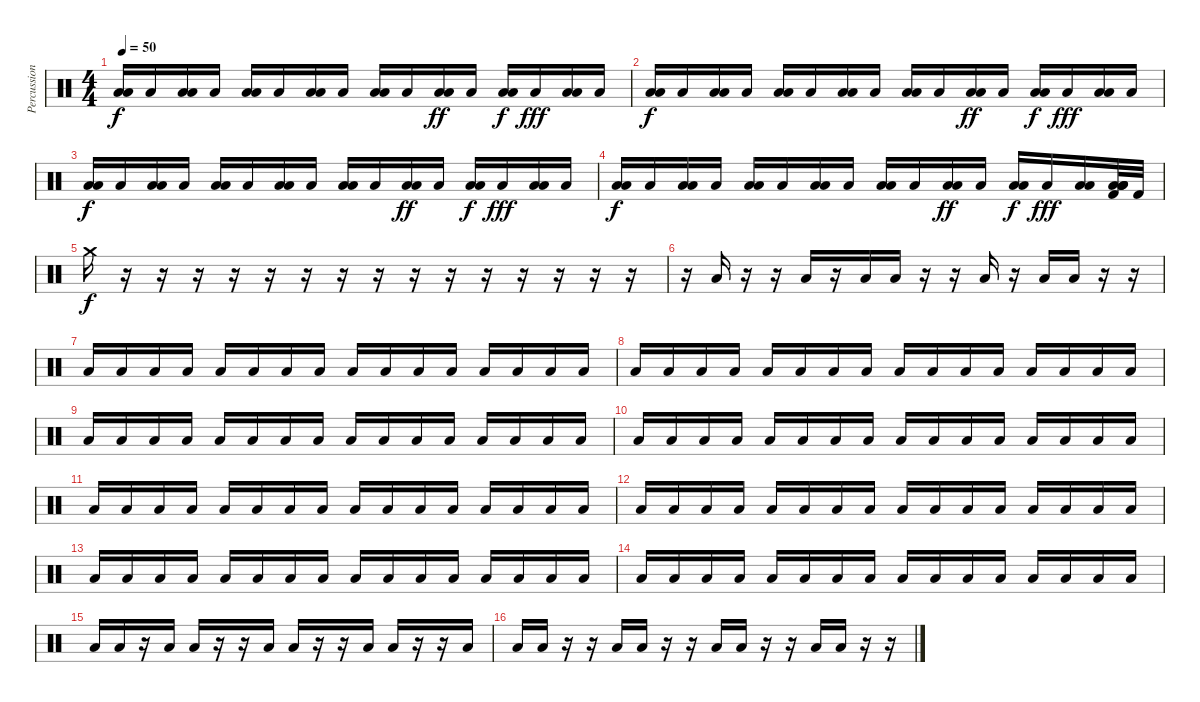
\track ("Percussion" "Percussion") {instrument percussion}
\staff {score}
\articulation defaults
\ts (4 4)
\tempo 50
\clef neutral
\ks c
("Low Floor Tom (hit)" "Low Tom (hit)").16{dy f} "Low Floor Tom (hit)".16 ("Low Floor Tom (hit)" "Low Tom (hit)").16 "Low Floor Tom (hit)".16 ("Low Floor Tom (hit)" "Low Tom (hit)").16 "Low Floor Tom (hit)".16 ("Low Floor Tom (hit)" "Low Tom (hit)").16 "Low Floor Tom (hit)".16 ("Low Floor Tom (hit)" "Low Tom (hit)").16 "Low Floor Tom (hit)".16 ("Low Floor Tom (hit)" "Low Tom (hit)").16{dy ff} "Low Floor Tom (hit)".16 ("Low Floor Tom (hit)" "Low Tom (hit)").16{dy f} "Low Floor Tom (hit)".16{dy fff} ("Low Floor Tom (hit)" "Low Tom (hit)").16 "Low Floor Tom (hit)".16 |
("Low Floor Tom (hit)" "Low Tom (hit)").16{dy f} "Low Floor Tom (hit)".16 ("Low Floor Tom (hit)" "Low Tom (hit)").16 "Low Floor Tom (hit)".16 ("Low Floor Tom (hit)" "Low Tom (hit)").16 "Low Floor Tom (hit)".16 ("Low Floor Tom (hit)" "Low Tom (hit)").16 "Low Floor Tom (hit)".16 ("Low Floor Tom (hit)" "Low Tom (hit)").16 "Low Floor Tom (hit)".16 ("Low Floor Tom (hit)" "Low Tom (hit)").16{dy ff} "Low Floor Tom (hit)".16 ("Low Floor Tom (hit)" "Low Tom (hit)").16{dy f} "Low Floor Tom (hit)".16{dy fff} ("Low Floor Tom (hit)" "Low Tom (hit)").16 "Low Floor Tom (hit)".16 |
("Low Floor Tom (hit)" "Low Tom (hit)").16{dy f} "Low Floor Tom (hit)".16 ("Low Floor Tom (hit)" "Low Tom (hit)").16 "Low Floor Tom (hit)".16 ("Low Floor Tom (hit)" "Low Tom (hit)").16 "Low Floor Tom (hit)".16 ("Low Floor Tom (hit)" "Low Tom (hit)").16 "Low Floor Tom (hit)".16 ("Low Floor Tom (hit)" "Low Tom (hit)").16 "Low Floor Tom (hit)".16 ("Low Floor Tom (hit)" "Low Tom (hit)").16{dy ff} "Low Floor Tom (hit)".16 ("Low Floor Tom (hit)" "Low Tom (hit)").16{dy f} "Low Floor Tom (hit)".16{dy fff} ("Low Floor Tom (hit)" "Low Tom (hit)").16 "Low Floor Tom (hit)".16 |
("Low Floor Tom (hit)" "Low Tom (hit)").16{dy f} "Low Floor Tom (hit)".16 ("Low Floor Tom (hit)" "Low Tom (hit)").16 "Low Floor Tom (hit)".16 ("Low Floor Tom (hit)" "Low Tom (hit)").16 "Low Floor Tom (hit)".16 ("Low Floor Tom (hit)" "Low Tom (hit)").16 "Low Floor Tom (hit)".16 ("Low Floor Tom (hit)" "Low Tom (hit)").16 "Low Floor Tom (hit)".16 ("Low Floor Tom (hit)" "Low Tom (hit)").16{dy ff} "Low Floor Tom (hit)".16 ("Low Floor Tom (hit)" "Low Tom (hit)").16{dy f} "Low Floor Tom (hit)".16{dy fff} ("Low Floor Tom (hit)" "Low Tom (hit)").16 ("Low Floor Tom (hit)" "Low Floor Tom (hit)" "Low Tom (hit)" "Low Tom (hit)" "Kick (hit) 2").32 "Kick (hit) 2".32 |
"Crash medium (hit)".16{dy f} r.16 r.16 r.16 r.16 r.16 r.16 r.16 r.16 r.16 r.16 r.16 r.16 r.16 r.16 r.16 |
r.16 "Low Floor Tom (hit)".16 r.16 r.16 "Low Floor Tom (hit)".16 r.16 "Low Floor Tom (hit)".16 "Low Floor Tom (hit)".16 r.16 r.16 "Low Floor Tom (hit)".16 r.16 "Low Floor Tom (hit)".16 "Low Floor Tom (hit)".16 r.16 r.16 |
"Low Floor Tom (hit)".16 "Low Floor Tom (hit)".16 "Low Floor Tom (hit)".16 "Low Floor Tom (hit)".16 "Low Floor Tom (hit)".16 "Low Floor Tom (hit)".16 "Low Floor Tom (hit)".16 "Low Floor Tom (hit)".16 "Low Floor Tom (hit)".16 "Low Floor Tom (hit)".16 "Low Floor Tom (hit)".16 "Low Floor Tom (hit)".16 "Low Floor Tom (hit)".16 "Low Floor Tom (hit)".16 "Low Floor Tom (hit)".16 "Low Floor Tom (hit)".16 |
"Low Floor Tom (hit)".16 "Low Floor Tom (hit)".16 "Low Floor Tom (hit)".16 "Low Floor Tom (hit)".16 "Low Floor Tom (hit)".16 "Low Floor Tom (hit)".16 "Low Floor Tom (hit)".16 "Low Floor Tom (hit)".16 "Low Floor Tom (hit)".16 "Low Floor Tom (hit)".16 "Low Floor Tom (hit)".16 "Low Floor Tom (hit)".16 "Low Floor Tom (hit)".16 "Low Floor Tom (hit)".16 "Low Floor Tom (hit)".16 "Low Floor Tom (hit)".16 |
"Low Floor Tom (hit)".16 "Low Floor Tom (hit)".16 "Low Floor Tom (hit)".16 "Low Floor Tom (hit)".16 "Low Floor Tom (hit)".16 "Low Floor Tom (hit)".16 "Low Floor Tom (hit)".16 "Low Floor Tom (hit)".16 "Low Floor Tom (hit)".16 "Low Floor Tom (hit)".16 "Low Floor Tom (hit)".16 "Low Floor Tom (hit)".16 "Low Floor Tom (hit)".16 "Low Floor Tom (hit)".16 "Low Floor Tom (hit)".16 "Low Floor Tom (hit)".16 |
"Low Floor Tom (hit)".16 "Low Floor Tom (hit)".16 "Low Floor Tom (hit)".16 "Low Floor Tom (hit)".16 "Low Floor Tom (hit)".16 "Low Floor Tom (hit)".16 "Low Floor Tom (hit)".16 "Low Floor Tom (hit)".16 "Low Floor Tom (hit)".16 "Low Floor Tom (hit)".16 "Low Floor Tom (hit)".16 "Low Floor Tom (hit)".16 "Low Floor Tom (hit)".16 "Low Floor Tom (hit)".16 "Low Floor Tom (hit)".16 "Low Floor Tom (hit)".16 |
"Low Floor Tom (hit)".16 "Low Floor Tom (hit)".16 "Low Floor Tom (hit)".16 "Low Floor Tom (hit)".16 "Low Floor Tom (hit)".16 "Low Floor Tom (hit)".16 "Low Floor Tom (hit)".16 "Low Floor Tom (hit)".16 "Low Floor Tom (hit)".16 "Low Floor Tom (hit)".16 "Low Floor Tom (hit)".16 "Low Floor Tom (hit)".16 "Low Floor Tom (hit)".16 "Low Floor Tom (hit)".16 "Low Floor Tom (hit)".16 "Low Floor Tom (hit)".16 |
"Low Floor Tom (hit)".16 "Low Floor Tom (hit)".16 "Low Floor Tom (hit)".16 "Low Floor Tom (hit)".16 "Low Floor Tom (hit)".16 "Low Floor Tom (hit)".16 "Low Floor Tom (hit)".16 "Low Floor Tom (hit)".16 "Low Floor Tom (hit)".16 "Low Floor Tom (hit)".16 "Low Floor Tom (hit)".16 "Low Floor Tom (hit)".16 "Low Floor Tom (hit)".16 "Low Floor Tom (hit)".16 "Low Floor Tom (hit)".16 "Low Floor Tom (hit)".16 |
"Low Floor Tom (hit)".16 "Low Floor Tom (hit)".16 "Low Floor Tom (hit)".16 "Low Floor Tom (hit)".16 "Low Floor Tom (hit)".16 "Low Floor Tom (hit)".16 "Low Floor Tom (hit)".16 "Low Floor Tom (hit)".16 "Low Floor Tom (hit)".16 "Low Floor Tom (hit)".16 "Low Floor Tom (hit)".16 "Low Floor Tom (hit)".16 "Low Floor Tom (hit)".16 "Low Floor Tom (hit)".16 "Low Floor Tom (hit)".16 "Low Floor Tom (hit)".16 |
"Low Floor Tom (hit)".16 "Low Floor Tom (hit)".16 "Low Floor Tom (hit)".16 "Low Floor Tom (hit)".16 "Low Floor Tom (hit)".16 "Low Floor Tom (hit)".16 "Low Floor Tom (hit)".16 "Low Floor Tom (hit)".16 "Low Floor Tom (hit)".16 "Low Floor Tom (hit)".16 "Low Floor Tom (hit)".16 "Low Floor Tom (hit)".16 "Low Floor Tom (hit)".16 "Low Floor Tom (hit)".16 "Low Floor Tom (hit)".16 "Low Floor Tom (hit)".16 |
"Low Floor Tom (hit)".16 "Low Floor Tom (hit)".16 r.16 "Low Floor Tom (hit)".16 "Low Floor Tom (hit)".16 r.16 r.16 "Low Floor Tom (hit)".16 "Low Floor Tom (hit)".16 r.16 r.16 "Low Floor Tom (hit)".16 "Low Floor Tom (hit)".16 r.16 r.16 "Low Floor Tom (hit)".16 |
"Low Floor Tom (hit)".16 "Low Floor Tom (hit)".16 r.16 r.16 "Low Floor Tom (hit)".16 "Low Floor Tom (hit)".16 r.16 r.16 "Low Floor Tom (hit)".16 "Low Floor Tom (hit)".16 r.16 r.16 "Low Floor Tom (hit)".16 "Low Floor Tom (hit)".16 r.16 r.16
